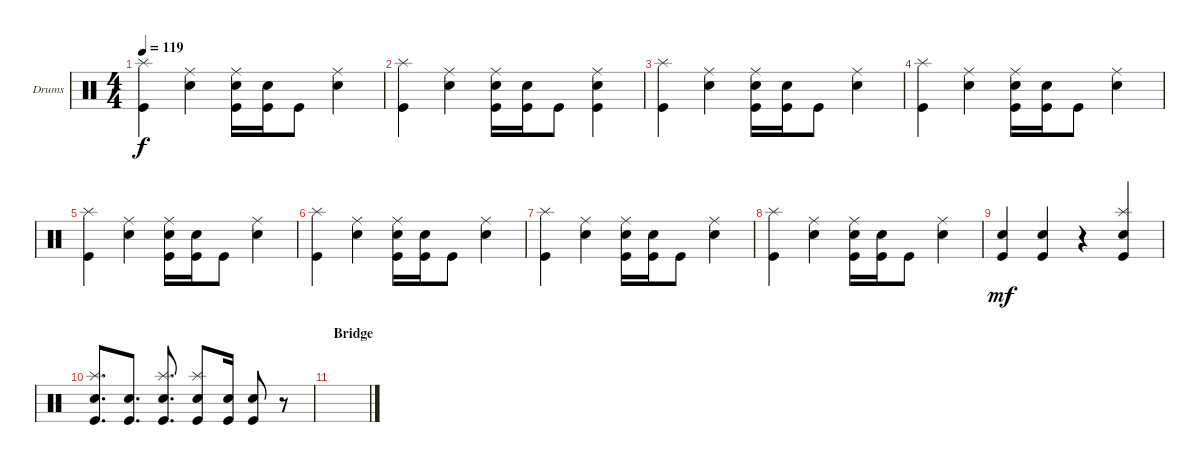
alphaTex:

\defaultSystemsLayout 4
\bracketExtendMode groupsimilarinstruments
\firstSystemTrackNameOrientation horizontal
\otherSystemsTrackNameOrientation horizontal
\track ("Drumkit" "Drums") {instrument percussion}
\staff {score}
\articulation defaults
\ts (4 4)
\tempo 119
\clef neutral
\ks c
("Kick (hit)" "Splash (hit)").4{dy f} ("Snare (hit) 2" "Ride (middle)").4 ("Kick (hit)" "Snare (hit) 2" "Ride (middle)").16 ("Kick (hit)" "Snare (hit) 2").16 "Kick (hit)".8 ("Snare (hit) 2" "Ride (middle)").4 |
("Kick (hit)" "Splash (hit)").4 ("Snare (hit) 2" "Ride (middle)").4 ("Kick (hit)" "Snare (hit) 2" "Ride (middle)").16 ("Kick (hit)" "Snare (hit) 2").16 "Kick (hit)".8 ("Snare (hit) 2" "Ride (middle)" "Kick (hit)").4 |
("Kick (hit)" "Splash (hit)").4 ("Snare (hit) 2" "Ride (middle)").4 ("Kick (hit)" "Snare (hit) 2" "Ride (middle)").16 ("Kick (hit)" "Snare (hit) 2").16 "Kick (hit)".8 ("Snare (hit) 2" "Ride (middle)").4 |
("Kick (hit)" "Splash (hit)").4 ("Snare (hit) 2" "Ride (middle)").4 ("Kick (hit)" "Snare (hit) 2" "Ride (middle)").16 ("Kick (hit)" "Snare (hit) 2").16 "Kick (hit)".8 ("Snare (hit) 2" "Ride (middle)").4 |
("Kick (hit)" "Splash (hit)").4 ("Snare (hit) 2" "Ride (middle)").4 ("Kick (hit)" "Snare (hit) 2" "Ride (middle)").16 ("Kick (hit)" "Snare (hit) 2").16 "Kick (hit)".8 ("Snare (hit) 2" "Ride (middle)").4 |
("Kick (hit)" "Splash (hit)").4 ("Snare (hit) 2" "Ride (middle)").4 ("Kick (hit)" "Snare (hit) 2" "Ride (middle)").16 ("Kick (hit)" "Snare (hit) 2").16 "Kick (hit)".8 ("Snare (hit) 2" "Ride (middle)").4 |
("Kick (hit)" "Splash (hit)").4 ("Snare (hit) 2" "Ride (middle)").4 ("Kick (hit)" "Snare (hit) 2" "Ride (middle)").16 ("Kick (hit)" "Snare (hit) 2").16 "Kick (hit)".8 ("Snare (hit) 2" "Ride (middle)").4 |
("Kick (hit)" "Splash (hit)").4 ("Snare (hit) 2" "Ride (middle)").4 ("Kick (hit)" "Snare (hit) 2" "Ride (middle)").16 ("Kick (hit)" "Snare (hit) 2").16 "Kick (hit)".8 ("Snare (hit) 2" "Ride (middle)").4 |
("Kick (hit)" "Snare (hit) 2").4{dy mf} ("Kick (hit)" "Snare (hit) 2").4 r.4 ("Kick (hit)" "Snare (hit) 2" "Splash (hit)").4 |
("Kick (hit)" "Splash (hit)" "Snare (hit) 2").8{d} ("Kick (hit)" "Snare (hit) 2").8{d} ("Kick (hit)" "Splash (hit)" "Snare (hit) 2").8{d} ("Kick (hit)" "Splash (hit)" "Snare (hit) 2").8 ("Kick (hit)" "Snare (hit) 2").16 ("Kick (hit)" "Snare (hit) 2").8 r.8 |
\section ("" "Bridge")
